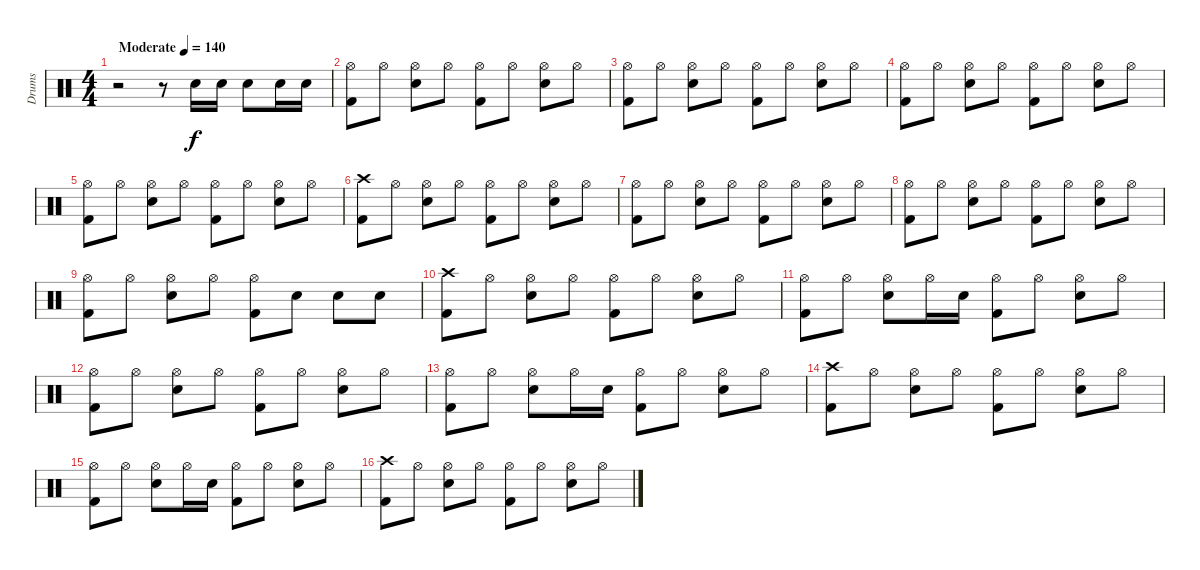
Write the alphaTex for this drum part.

\track ("Drums" "Drums") {instrument percussion}
\staff {score}
\articulation defaults
\ts (4 4)
\tempo (140 "Moderate")
\clef neutral
\ks c
r.2{dy f} r.8 "Snare (hit) 2".16 "Snare (hit) 2".16 "Snare (hit) 2".8 "Snare (hit) 2".16 "Snare (hit) 2".16 |
("Hi-Hat (open)" "Kick (hit) 2").8 "Hi-Hat (open)".8 ("Hi-Hat (open)" "Snare (hit) 2").8 "Hi-Hat (open)".8 ("Hi-Hat (open)" "Kick (hit) 2").8 "Hi-Hat (open)".8 ("Hi-Hat (open)" "Snare (hit) 2").8 "Hi-Hat (open)".8 |
("Hi-Hat (open)" "Kick (hit) 2").8 "Hi-Hat (open)".8 ("Hi-Hat (open)" "Snare (hit) 2").8 "Hi-Hat (open)".8 ("Hi-Hat (open)" "Kick (hit) 2").8 "Hi-Hat (open)".8 ("Hi-Hat (open)" "Snare (hit) 2").8 "Hi-Hat (open)".8 |
("Hi-Hat (open)" "Kick (hit) 2").8 "Hi-Hat (open)".8 ("Hi-Hat (open)" "Snare (hit) 2").8 "Hi-Hat (open)".8 ("Hi-Hat (open)" "Kick (hit) 2").8 "Hi-Hat (open)".8 ("Hi-Hat (open)" "Snare (hit) 2").8 "Hi-Hat (open)".8 |
("Hi-Hat (open)" "Kick (hit) 2").8 "Hi-Hat (open)".8 ("Hi-Hat (open)" "Snare (hit) 2").8 "Hi-Hat (open)".8 ("Hi-Hat (open)" "Kick (hit) 2").8 "Hi-Hat (open)".8 ("Hi-Hat (open)" "Snare (hit) 2").8 "Hi-Hat (open)".8 |
("Crash high (hit)" "Kick (hit) 2").8 "Hi-Hat (open)".8 ("Hi-Hat (open)" "Snare (hit) 2").8 "Hi-Hat (open)".8 ("Hi-Hat (open)" "Kick (hit) 2").8 "Hi-Hat (open)".8 ("Hi-Hat (open)" "Snare (hit) 2").8 "Hi-Hat (open)".8 |
("Hi-Hat (open)" "Kick (hit) 2").8 "Hi-Hat (open)".8 ("Hi-Hat (open)" "Snare (hit) 2").8 "Hi-Hat (open)".8 ("Hi-Hat (open)" "Kick (hit) 2").8 "Hi-Hat (open)".8 ("Hi-Hat (open)" "Snare (hit) 2").8 "Hi-Hat (open)".8 |
("Hi-Hat (open)" "Kick (hit) 2").8 "Hi-Hat (open)".8 ("Hi-Hat (open)" "Snare (hit) 2").8 "Hi-Hat (open)".8 ("Hi-Hat (open)" "Kick (hit) 2").8 "Hi-Hat (open)".8 ("Hi-Hat (open)" "Snare (hit) 2").8 "Hi-Hat (open)".8 |
("Hi-Hat (open)" "Kick (hit) 2").8 "Hi-Hat (open)".8 ("Hi-Hat (open)" "Snare (hit) 2").8 "Hi-Hat (open)".8 ("Hi-Hat (open)" "Kick (hit) 2").8 "Snare (hit) 2".8 "Snare (hit) 2".8 "Snare (hit) 2".8 |
("Crash high (hit)" "Kick (hit) 2").8 "Hi-Hat (open)".8 ("Hi-Hat (open)" "Snare (hit) 2").8 "Hi-Hat (open)".8 ("Hi-Hat (open)" "Kick (hit) 2").8 "Hi-Hat (open)".8 ("Hi-Hat (open)" "Snare (hit) 2").8 "Hi-Hat (open)".8 |
("Hi-Hat (open)" "Kick (hit) 2").8 "Hi-Hat (open)".8 ("Hi-Hat (open)" "Snare (hit) 2").8 "Hi-Hat (open)".16 "Snare (hit) 2".16 ("Hi-Hat (open)" "Kick (hit) 2").8 "Hi-Hat (open)".8 ("Hi-Hat (open)" "Snare (hit) 2").8 "Hi-Hat (open)".8 |
("Hi-Hat (open)" "Kick (hit) 2").8 "Hi-Hat (open)".8 ("Hi-Hat (open)" "Snare (hit) 2").8 "Hi-Hat (open)".8 ("Hi-Hat (open)" "Kick (hit) 2").8 "Hi-Hat (open)".8 ("Hi-Hat (open)" "Snare (hit) 2").8 "Hi-Hat (open)".8 |
("Hi-Hat (open)" "Kick (hit) 2").8 "Hi-Hat (open)".8 ("Hi-Hat (open)" "Snare (hit) 2").8 "Hi-Hat (open)".16 "Snare (hit) 2".16 ("Hi-Hat (open)" "Kick (hit) 2").8 "Hi-Hat (open)".8 ("Hi-Hat (open)" "Snare (hit) 2").8 "Hi-Hat (open)".8 |
("Crash high (hit)" "Kick (hit) 2").8 "Hi-Hat (open)".8 ("Hi-Hat (open)" "Snare (hit) 2").8 "Hi-Hat (open)".8 ("Hi-Hat (open)" "Kick (hit) 2").8 "Hi-Hat (open)".8 ("Hi-Hat (open)" "Snare (hit) 2").8 "Hi-Hat (open)".8 |
("Hi-Hat (open)" "Kick (hit) 2").8 "Hi-Hat (open)".8 ("Hi-Hat (open)" "Snare (hit) 2").8 "Hi-Hat (open)".16 "Snare (hit) 2".16 ("Hi-Hat (open)" "Kick (hit) 2").8 "Hi-Hat (open)".8 ("Hi-Hat (open)" "Snare (hit) 2").8 "Hi-Hat (open)".8 |
("Crash high (hit)" "Kick (hit) 2").8 "Hi-Hat (open)".8 ("Hi-Hat (open)" "Snare (hit) 2").8 "Hi-Hat (open)".8 ("Hi-Hat (open)" "Kick (hit) 2").8 "Hi-Hat (open)".8 ("Hi-Hat (open)" "Snare (hit) 2").8 "Hi-Hat (open)".8
